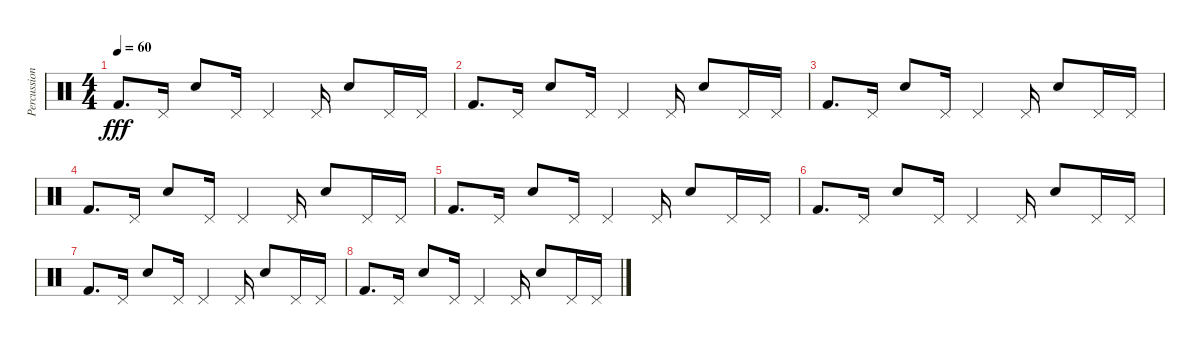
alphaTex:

\track ("Percussion" "Percussion") {instrument percussion}
\staff {score}
\articulation defaults
\ts (4 4)
\tempo 60
\clef neutral
\ks c "Kick (hit) 2".8{d dy fff} "Pedal Hi-Hat (hit)".16 "Snare (hit) 2".8 "Pedal Hi-Hat (hit)".16 "Pedal Hi-Hat (hit)".4 "Pedal Hi-Hat (hit)".16 "Snare (hit) 2".8 "Pedal Hi-Hat (hit)".16 "Pedal Hi-Hat (hit)".16
|
"Kick (hit) 2".8{d} "Pedal Hi-Hat (hit)".16 "Snare (hit) 2".8 "Pedal Hi-Hat (hit)".16 "Pedal Hi-Hat (hit)".4 "Pedal Hi-Hat (hit)".16 "Snare (hit) 2".8 "Pedal Hi-Hat (hit)".16 "Pedal Hi-Hat (hit)".16 |
"Kick (hit) 2".8{d} "Pedal Hi-Hat (hit)".16 "Snare (hit) 2".8 "Pedal Hi-Hat (hit)".16 "Pedal Hi-Hat (hit)".4 "Pedal Hi-Hat (hit)".16 "Snare (hit) 2".8 "Pedal Hi-Hat (hit)".16 "Pedal Hi-Hat (hit)".16 |
"Kick (hit) 2".8{d} "Pedal Hi-Hat (hit)".16 "Snare (hit) 2".8 "Pedal Hi-Hat (hit)".16 "Pedal Hi-Hat (hit)".4 "Pedal Hi-Hat (hit)".16 "Snare (hit) 2".8 "Pedal Hi-Hat (hit)".16 "Pedal Hi-Hat (hit)".16 |
"Kick (hit) 2".8{d} "Pedal Hi-Hat (hit)".16 "Snare (hit) 2".8 "Pedal Hi-Hat (hit)".16 "Pedal Hi-Hat (hit)".4 "Pedal Hi-Hat (hit)".16 "Snare (hit) 2".8 "Pedal Hi-Hat (hit)".16 "Pedal Hi-Hat (hit)".16 |
"Kick (hit) 2".8{d} "Pedal Hi-Hat (hit)".16 "Snare (hit) 2".8 "Pedal Hi-Hat (hit)".16 "Pedal Hi-Hat (hit)".4 "Pedal Hi-Hat (hit)".16 "Snare (hit) 2".8 "Pedal Hi-Hat (hit)".16 "Pedal Hi-Hat (hit)".16 |
"Kick (hit) 2".8{d} "Pedal Hi-Hat (hit)".16 "Snare (hit) 2".8 "Pedal Hi-Hat (hit)".16 "Pedal Hi-Hat (hit)".4 "Pedal Hi-Hat (hit)".16 "Snare (hit) 2".8 "Pedal Hi-Hat (hit)".16 "Pedal Hi-Hat (hit)".16 |
"Kick (hit) 2".8{d} "Pedal Hi-Hat (hit)".16 "Snare (hit) 2".8 "Pedal Hi-Hat (hit)".16 "Pedal Hi-Hat (hit)".4 "Pedal Hi-Hat (hit)".16 "Snare (hit) 2".8 "Pedal Hi-Hat (hit)".16 "Pedal Hi-Hat (hit)".16
